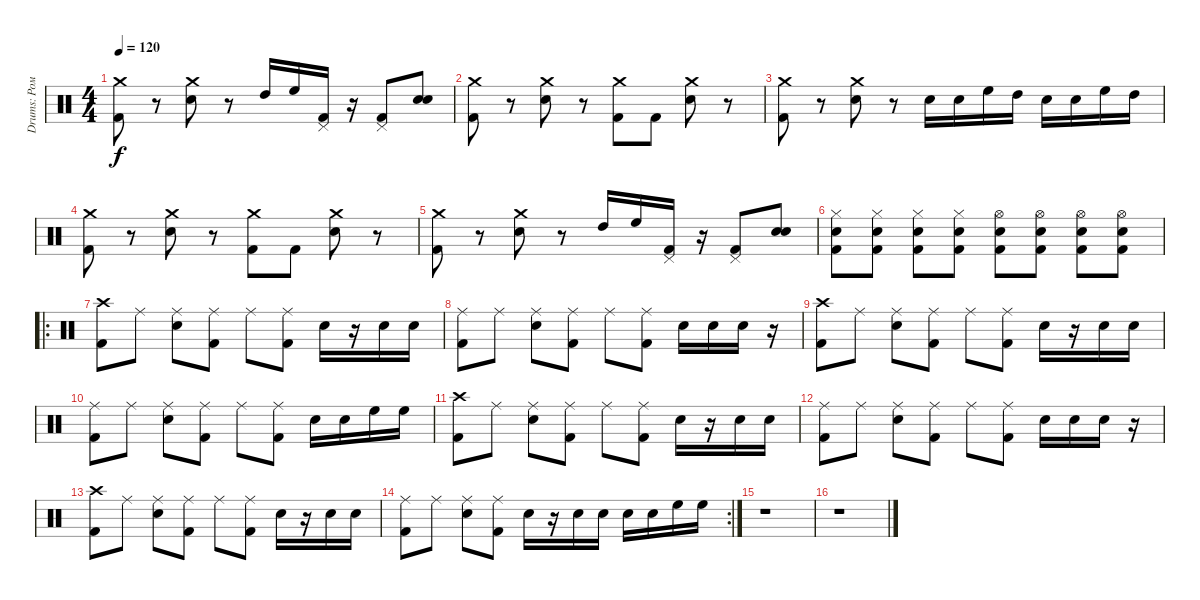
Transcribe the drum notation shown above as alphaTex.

\track ("Drums: Рома" "Drums: Ром") {instrument percussion}
\staff {score}
\articulation defaults
\ts (4 4)
\tempo 120
\clef neutral
\ks c
("Kick (hit) 2" "Crash medium (hit)").8{dy f} r.8 ("Snare (hit) 2" "Crash medium (hit)").8 r.8 "High Tom (hit)".16 "High Floor Tom (hit)".16 ("Kick (hit) 2" "Pedal Hi-Hat (hit)").16 r.16 ("Kick (hit) 2" "Pedal Hi-Hat (hit)").8 ("Snare (hit) 2" "Snare (hit) 2").8 |
("Kick (hit) 2" "Crash medium (hit)").8 r.8 ("Snare (hit) 2" "Crash medium (hit)").8 r.8 ("Kick (hit) 2" "Crash medium (hit)").8 "Kick (hit) 2".8 ("Snare (hit) 2" "Crash medium (hit)").8 r.8 |
("Kick (hit) 2" "Crash medium (hit)").8 r.8 ("Snare (hit) 2" "Crash medium (hit)").8 r.8 "Snare (hit) 2".16 "Snare (hit) 2".16 "High Floor Tom (hit)".16 "High Tom (hit)".16 "Snare (hit) 2".16 "Snare (hit) 2".16 "High Floor Tom (hit)".16 "High Tom (hit)".16 |
("Kick (hit) 2" "Crash medium (hit)").8 r.8 ("Snare (hit) 2" "Crash medium (hit)").8 r.8 ("Kick (hit) 2" "Crash medium (hit)").8 "Kick (hit) 2".8 ("Snare (hit) 2" "Crash medium (hit)").8 r.8 |
("Kick (hit) 2" "Crash medium (hit)").8 r.8 ("Snare (hit) 2" "Crash medium (hit)").8 r.8 "High Tom (hit)".16 "High Floor Tom (hit)".16 ("Kick (hit) 2" "Pedal Hi-Hat (hit)").16 r.16 ("Kick (hit) 2" "Pedal Hi-Hat (hit)").8 ("Snare (hit) 2" "Snare (hit) 2").8 |
("Snare (hit) 2" "Hi-Hat (closed)" "Kick (hit) 2").8 ("Snare (hit) 2" "Hi-Hat (closed)" "Kick (hit) 2").8 ("Snare (hit) 2" "Hi-Hat (closed)" "Kick (hit) 2").8 ("Snare (hit) 2" "Hi-Hat (closed)" "Kick (hit) 2").8 ("Snare (hit) 2" "Hi-Hat (open)" "Kick (hit) 2").8 ("Snare (hit) 2" "Hi-Hat (open)" "Kick (hit) 2").8 ("Snare (hit) 2" "Hi-Hat (open)" "Kick (hit) 2").8 ("Snare (hit) 2" "Hi-Hat (open)" "Kick (hit) 2").8 |
\ro
("Crash high (hit)" "Kick (hit) 2").8 "Ride (middle)".8 ("Ride (middle)" "Snare (hit) 2").8 ("Ride (middle)" "Kick (hit) 2").8 "Ride (middle)".8 ("Ride (middle)" "Kick (hit) 2").8 "Snare (hit) 2".16 r.16 "Snare (hit) 2".16 "Snare (hit) 2".16 |
("Ride (middle)" "Kick (hit) 2").8 "Ride (middle)".8 ("Ride (middle)" "Snare (hit) 2").8 ("Ride (middle)" "Kick (hit) 2").8 "Ride (middle)".8 ("Ride (middle)" "Kick (hit) 2").8 "Snare (hit) 2".16 "Snare (hit) 2".16 "Snare (hit) 2".16 r.16 |
("Crash high (hit)" "Kick (hit) 2").8 "Ride (middle)".8 ("Ride (middle)" "Snare (hit) 2").8 ("Ride (middle)" "Kick (hit) 2").8 "Ride (middle)".8 ("Ride (middle)" "Kick (hit) 2").8 "Snare (hit) 2".16 r.16 "Snare (hit) 2".16 "Snare (hit) 2".16 |
("Ride (middle)" "Kick (hit) 2").8 "Ride (middle)".8 ("Ride (middle)" "Snare (hit) 2").8 ("Ride (middle)" "Kick (hit) 2").8 "Ride (middle)".8 ("Ride (middle)" "Kick (hit) 2").8 "Snare (hit) 2".16 "Snare (hit) 2".16 "High Floor Tom (hit)".16 "High Floor Tom (hit)".16 |
("Crash high (hit)" "Kick (hit) 2").8 "Ride (middle)".8 ("Ride (middle)" "Snare (hit) 2").8 ("Ride (middle)" "Kick (hit) 2").8 "Ride (middle)".8 ("Ride (middle)" "Kick (hit) 2").8 "Snare (hit) 2".16 r.16 "Snare (hit) 2".16 "Snare (hit) 2".16 |
("Ride (middle)" "Kick (hit) 2").8 "Ride (middle)".8 ("Ride (middle)" "Snare (hit) 2").8 ("Ride (middle)" "Kick (hit) 2").8 "Ride (middle)".8 ("Ride (middle)" "Kick (hit) 2").8 "Snare (hit) 2".16 "Snare (hit) 2".16 "Snare (hit) 2".16 r.16 |
("Crash high (hit)" "Kick (hit) 2").8 "Ride (middle)".8 ("Ride (middle)" "Snare (hit) 2").8 ("Ride (middle)" "Kick (hit) 2").8 "Ride (middle)".8 ("Ride (middle)" "Kick (hit) 2").8 "Snare (hit) 2".16 r.16 "Snare (hit) 2".16 "Snare (hit) 2".16 |
\rc 2
("Ride (middle)" "Kick (hit) 2").8 "Ride (middle)".8 ("Ride (middle)" "Snare (hit) 2").8 ("Ride (middle)" "Kick (hit) 2").8 "Snare (hit) 2".16 r.16 "Snare (hit) 2".16 "Snare (hit) 2".16 "Snare (hit) 2".16 "Snare (hit) 2".16 "High Floor Tom (hit)".16 "High Floor Tom (hit)".16 |
r.1 |
r.1
